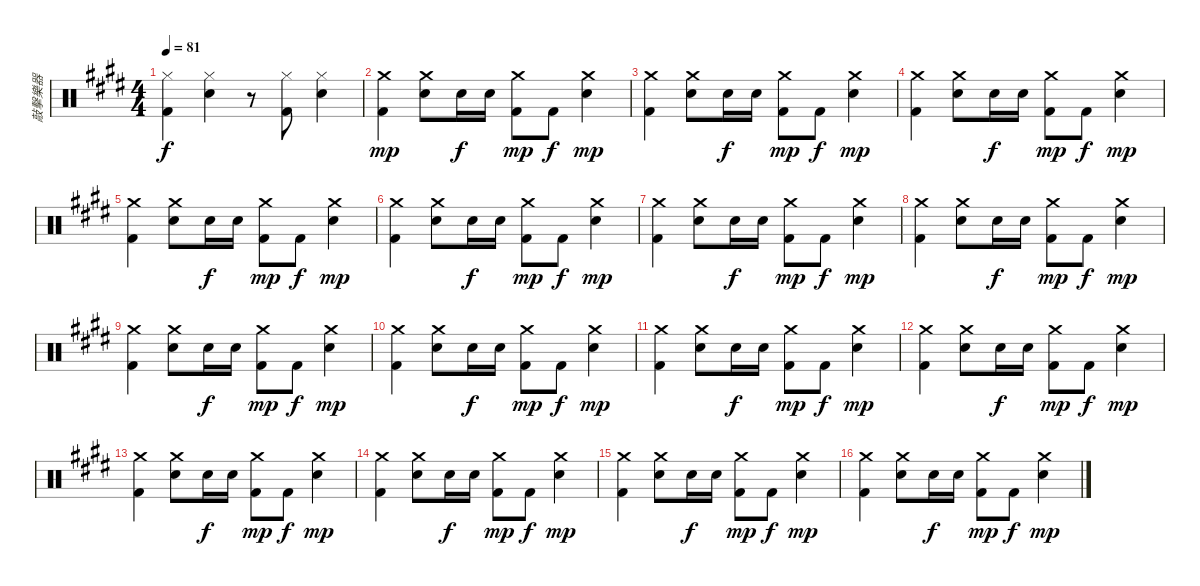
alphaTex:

\track ("敲擊樂器" "敲擊樂器") {instrument percussion}
\staff {score}
\articulation defaults
\ts (4 4)
\tempo 81
\clef neutral
\ks e
("Hi-Hat (closed)" "Kick (hit) 2").4{dy f} ("Hi-Hat (closed)" "Snare (hit) 2").4 r.8 ("Hi-Hat (closed)" "Kick (hit) 2").8 ("Hi-Hat (closed)" "Snare (hit) 2").4 |
("Crash medium (hit)" "Kick (hit) 2").4{dy mp} ("Crash medium (hit)" "Electric Snare (hit)").8 "Snare (hit) 2".16{dy f} "Electric Snare (hit)".16 ("Crash medium (hit)" "Kick (hit) 2").8{dy mp} "Kick (hit) 2".8{dy f} ("Crash medium (hit)" "Electric Snare (hit)").4{dy mp} |
("Crash medium (hit)" "Kick (hit) 2").4 ("Crash medium (hit)" "Electric Snare (hit)").8 "Snare (hit) 2".16{dy f} "Electric Snare (hit)".16 ("Crash medium (hit)" "Kick (hit) 2").8{dy mp} "Kick (hit) 2".8{dy f} ("Crash medium (hit)" "Electric Snare (hit)").4{dy mp} |
("Crash medium (hit)" "Kick (hit) 2").4 ("Crash medium (hit)" "Electric Snare (hit)").8 "Snare (hit) 2".16{dy f} "Electric Snare (hit)".16 ("Crash medium (hit)" "Kick (hit) 2").8{dy mp} "Kick (hit) 2".8{dy f} ("Crash medium (hit)" "Electric Snare (hit)").4{dy mp} |
("Crash medium (hit)" "Kick (hit) 2").4 ("Crash medium (hit)" "Electric Snare (hit)").8 "Snare (hit) 2".16{dy f} "Electric Snare (hit)".16 ("Crash medium (hit)" "Kick (hit) 2").8{dy mp} "Kick (hit) 2".8{dy f} ("Crash medium (hit)" "Electric Snare (hit)").4{dy mp} |
("Crash medium (hit)" "Kick (hit) 2").4 ("Crash medium (hit)" "Electric Snare (hit)").8 "Snare (hit) 2".16{dy f} "Electric Snare (hit)".16 ("Crash medium (hit)" "Kick (hit) 2").8{dy mp} "Kick (hit) 2".8{dy f} ("Crash medium (hit)" "Electric Snare (hit)").4{dy mp} |
("Crash medium (hit)" "Kick (hit) 2").4 ("Crash medium (hit)" "Electric Snare (hit)").8 "Snare (hit) 2".16{dy f} "Electric Snare (hit)".16 ("Crash medium (hit)" "Kick (hit) 2").8{dy mp} "Kick (hit) 2".8{dy f} ("Crash medium (hit)" "Electric Snare (hit)").4{dy mp} |
("Crash medium (hit)" "Kick (hit) 2").4 ("Crash medium (hit)" "Electric Snare (hit)").8 "Snare (hit) 2".16{dy f} "Electric Snare (hit)".16 ("Crash medium (hit)" "Kick (hit) 2").8{dy mp} "Kick (hit) 2".8{dy f} ("Crash medium (hit)" "Electric Snare (hit)").4{dy mp} |
("Crash medium (hit)" "Kick (hit) 2").4 ("Crash medium (hit)" "Electric Snare (hit)").8 "Snare (hit) 2".16{dy f} "Electric Snare (hit)".16 ("Crash medium (hit)" "Kick (hit) 2").8{dy mp} "Kick (hit) 2".8{dy f} ("Crash medium (hit)" "Electric Snare (hit)").4{dy mp} |
("Crash medium (hit)" "Kick (hit) 2").4 ("Crash medium (hit)" "Electric Snare (hit)").8 "Snare (hit) 2".16{dy f} "Electric Snare (hit)".16 ("Crash medium (hit)" "Kick (hit) 2").8{dy mp} "Kick (hit) 2".8{dy f} ("Crash medium (hit)" "Electric Snare (hit)").4{dy mp} |
("Crash medium (hit)" "Kick (hit) 2").4 ("Crash medium (hit)" "Electric Snare (hit)").8 "Snare (hit) 2".16{dy f} "Electric Snare (hit)".16 ("Crash medium (hit)" "Kick (hit) 2").8{dy mp} "Kick (hit) 2".8{dy f} ("Crash medium (hit)" "Electric Snare (hit)").4{dy mp} |
("Crash medium (hit)" "Kick (hit) 2").4 ("Crash medium (hit)" "Electric Snare (hit)").8 "Snare (hit) 2".16{dy f} "Electric Snare (hit)".16 ("Crash medium (hit)" "Kick (hit) 2").8{dy mp} "Kick (hit) 2".8{dy f} ("Crash medium (hit)" "Electric Snare (hit)").4{dy mp} |
("Crash medium (hit)" "Kick (hit) 2").4 ("Crash medium (hit)" "Electric Snare (hit)").8 "Snare (hit) 2".16{dy f} "Electric Snare (hit)".16 ("Crash medium (hit)" "Kick (hit) 2").8{dy mp} "Kick (hit) 2".8{dy f} ("Crash medium (hit)" "Electric Snare (hit)").4{dy mp} |
("Crash medium (hit)" "Kick (hit) 2").4 ("Crash medium (hit)" "Electric Snare (hit)").8 "Snare (hit) 2".16{dy f} "Electric Snare (hit)".16 ("Crash medium (hit)" "Kick (hit) 2").8{dy mp} "Kick (hit) 2".8{dy f} ("Crash medium (hit)" "Electric Snare (hit)").4{dy mp} |
("Crash medium (hit)" "Kick (hit) 2").4 ("Crash medium (hit)" "Electric Snare (hit)").8 "Snare (hit) 2".16{dy f} "Electric Snare (hit)".16 ("Crash medium (hit)" "Kick (hit) 2").8{dy mp} "Kick (hit) 2".8{dy f} ("Crash medium (hit)" "Electric Snare (hit)").4{dy mp} |
("Crash medium (hit)" "Kick (hit) 2").4 ("Crash medium (hit)" "Electric Snare (hit)").8 "Snare (hit) 2".16{dy f} "Electric Snare (hit)".16 ("Crash medium (hit)" "Kick (hit) 2").8{dy mp} "Kick (hit) 2".8{dy f} ("Crash medium (hit)" "Electric Snare (hit)").4{dy mp}
